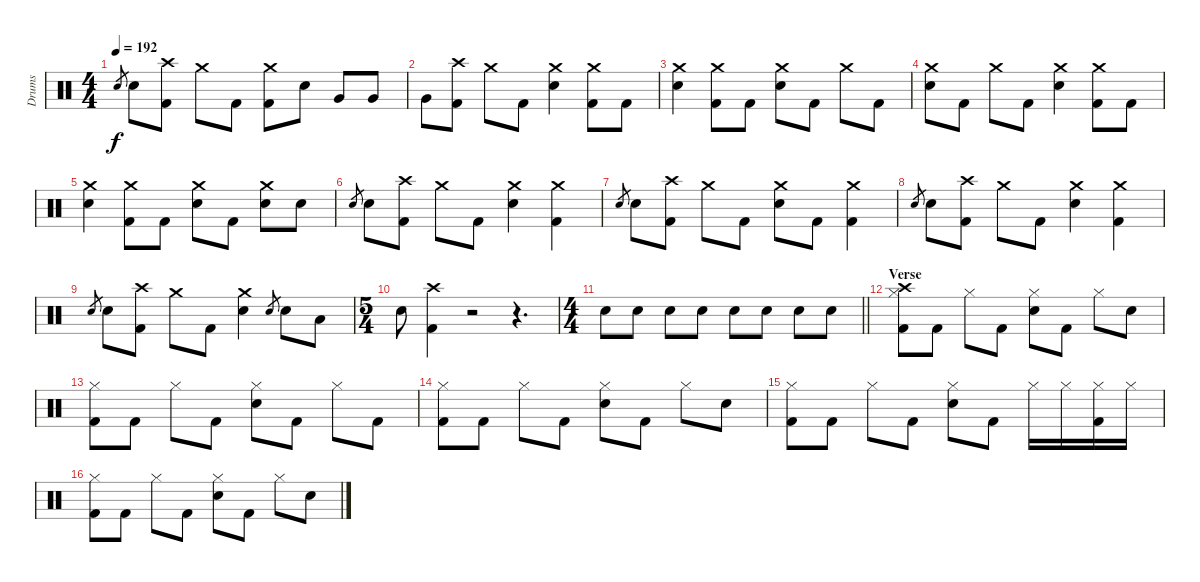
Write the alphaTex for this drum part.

\track ("Drums" "Drums") {instrument percussion}
\staff {score}
\articulation defaults
\ts (4 4)
\tempo 192
\clef neutral
\ks c "Electric Snare (hit)".8{gr dy f} "Electric Snare (hit)".8
("Crash high (hit)" "Kick (hit) 2").8 "Crash medium (hit)".8 "Kick (hit) 2".8 ("Crash medium (hit)" "Kick (hit) 2").8 "Electric Snare (hit)".8 "Very Low Tom (hit)".8 "Very Low Tom (hit)".8 |
"Very Low Tom (hit)".8 ("Crash high (hit)" "Kick (hit) 2").8 "Crash medium (hit)".8 "Kick (hit) 2".8 ("Crash medium (hit)" "Electric Snare (hit)").4 ("Crash medium (hit)" "Kick (hit) 2").8 "Kick (hit) 2".8 |
("Crash medium (hit)" "Electric Snare (hit)").4 ("Crash medium (hit)" "Kick (hit) 2").8 "Kick (hit) 2".8 ("Crash medium (hit)" "Electric Snare (hit)").8 "Kick (hit) 2".8 "Crash medium (hit)".8 "Kick (hit) 2".8 |
("Crash medium (hit)" "Electric Snare (hit)").8 "Kick (hit) 2".8 "Crash medium (hit)".8 "Kick (hit) 2".8 ("Crash medium (hit)" "Electric Snare (hit)").4 ("Crash medium (hit)" "Kick (hit) 2").8 "Kick (hit) 2".8 |
("Crash medium (hit)" "Electric Snare (hit)").4 ("Crash medium (hit)" "Kick (hit) 2").8 "Kick (hit) 2".8 ("Crash medium (hit)" "Electric Snare (hit)").8 "Kick (hit) 2".8 ("Crash medium (hit)" "Electric Snare (hit)").8 "Electric Snare (hit)".8 |
"Electric Snare (hit)".8{gr} "Electric Snare (hit)".8 ("Crash high (hit)" "Kick (hit) 2").8 "Crash medium (hit)".8 "Kick (hit) 2".8 ("Crash medium (hit)" "Electric Snare (hit)").4 ("Crash medium (hit)" "Kick (hit) 2").4 |
"Electric Snare (hit)".8{gr} "Electric Snare (hit)".8 ("Crash high (hit)" "Kick (hit) 2").8 "Crash medium (hit)".8 "Kick (hit) 2".8 ("Crash medium (hit)" "Electric Snare (hit)").8 "Kick (hit) 2".8 ("Crash medium (hit)" "Kick (hit) 2").4 |
"Electric Snare (hit)".8{gr} "Electric Snare (hit)".8 ("Crash high (hit)" "Kick (hit) 2").8 "Crash medium (hit)".8 "Kick (hit) 2".8 ("Crash medium (hit)" "Electric Snare (hit)").4 ("Crash medium (hit)" "Kick (hit) 2").4 |
"Electric Snare (hit)".8{gr} "Electric Snare (hit)".8 ("Crash high (hit)" "Kick (hit) 2").8 "Crash medium (hit)".8 "Kick (hit) 2".8 ("Crash medium (hit)" "Electric Snare (hit)").4 "Electric Snare (hit)".8{gr} "Electric Snare (hit)".8 "Low Tom (hit)".8 |
\ts (5 4)
"Electric Snare (hit)".8 ("Crash high (hit)" "Kick (hit) 2").4 r.2 r.4{d} |
\ts (4 4)
\barLineRight lightlight "Electric Snare (hit)".8{volume 3} "Electric Snare (hit)".8{volume 13} "Electric Snare (hit)".8 "Electric Snare (hit)".8 "Electric Snare (hit)".8 "Electric Snare (hit)".8 "Electric Snare (hit)".8 "Electric Snare (hit)".8
|
\section ("" "Verse")
("Crash high (hit)" "Hi-Hat (closed)" "Kick (hit) 2").8 "Kick (hit) 2".8 "Hi-Hat (closed)".8 "Kick (hit) 2".8 ("Hi-Hat (closed)" "Electric Snare (hit)").8 "Kick (hit) 2".8 "Hi-Hat (closed)".8 "Electric Snare (hit)".8 |
("Hi-Hat (closed)" "Kick (hit) 2").8 "Kick (hit) 2".8 "Hi-Hat (closed)".8 "Kick (hit) 2".8 ("Hi-Hat (closed)" "Electric Snare (hit)").8 "Kick (hit) 2".8 "Hi-Hat (closed)".8 "Kick (hit) 2".8 |
("Hi-Hat (closed)" "Kick (hit) 2").8 "Kick (hit) 2".8 "Hi-Hat (closed)".8 "Kick (hit) 2".8 ("Hi-Hat (closed)" "Electric Snare (hit)").8 "Kick (hit) 2".8 "Hi-Hat (closed)".8 "Electric Snare (hit)".8 |
("Hi-Hat (closed)" "Kick (hit) 2").8 "Kick (hit) 2".8 "Hi-Hat (closed)".8 "Kick (hit) 2".8 ("Hi-Hat (closed)" "Electric Snare (hit)").8 "Kick (hit) 2".8 "Hi-Hat (closed)".16 "Hi-Hat (closed)".16 ("Hi-Hat (closed)" "Kick (hit) 2").16 "Hi-Hat (closed)".16 |
("Hi-Hat (closed)" "Kick (hit) 2").8 "Kick (hit) 2".8 "Hi-Hat (closed)".8 "Kick (hit) 2".8 ("Hi-Hat (closed)" "Electric Snare (hit)").8 "Kick (hit) 2".8 "Hi-Hat (closed)".8 "Electric Snare (hit)".8
